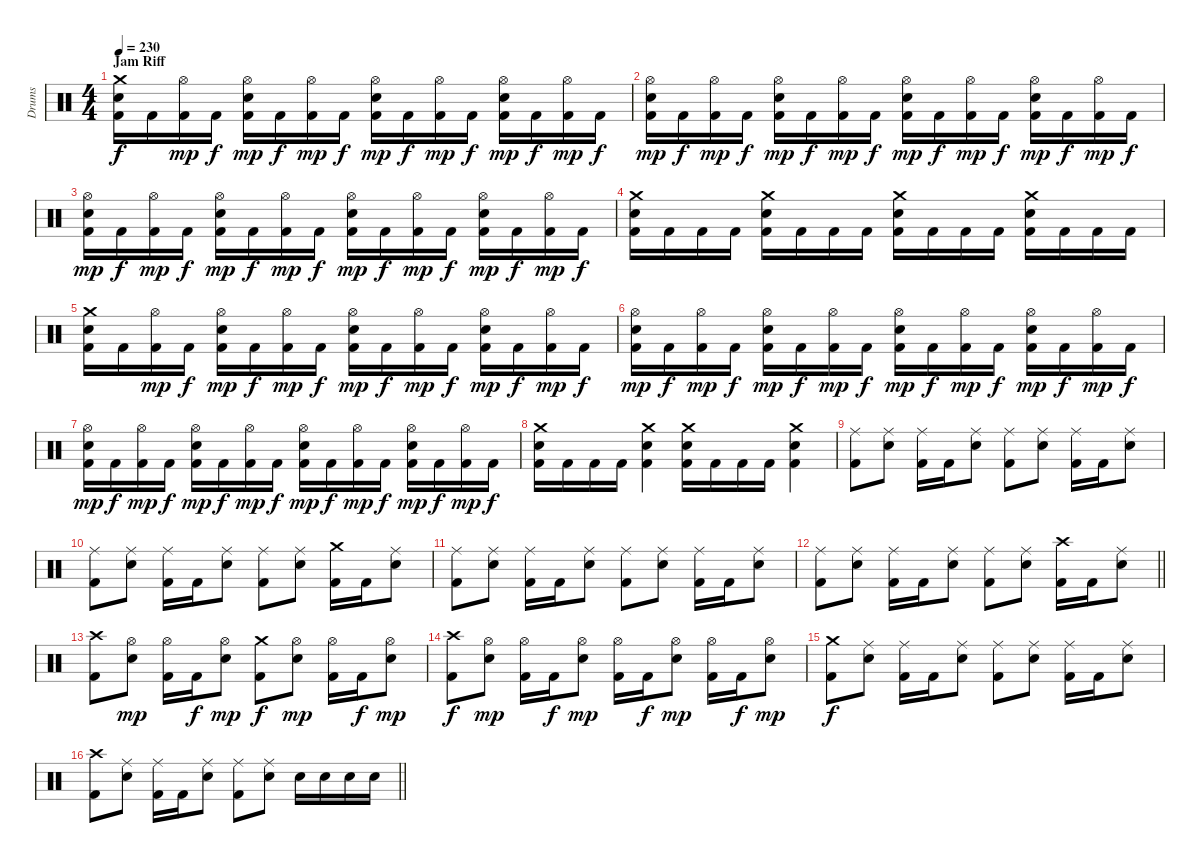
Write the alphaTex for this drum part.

\track ("Drums" "Drums") {instrument percussion}
\staff {score}
\articulation defaults
\ts (4 4)
\section ("" "Jam Riff")
\tempo 230
\clef neutral
\ks c
("Crash medium (hit)" "Snare (hit) 2" "Kick (hit) 2").16{dy f} "Kick (hit) 2".16 ("Hi-Hat (open)" "Kick (hit) 2").16{dy mp} "Kick (hit) 2".16{dy f} ("Hi-Hat (open)" "Snare (hit) 2" "Kick (hit) 2").16{dy mp} "Kick (hit) 2".16{dy f} ("Hi-Hat (open)" "Kick (hit) 2").16{dy mp} "Kick (hit) 2".16{dy f} ("Hi-Hat (open)" "Snare (hit) 2" "Kick (hit) 2").16{dy mp} "Kick (hit) 2".16{dy f} ("Hi-Hat (open)" "Kick (hit) 2").16{dy mp} "Kick (hit) 2".16{dy f} ("Hi-Hat (open)" "Snare (hit) 2" "Kick (hit) 2").16{dy mp} "Kick (hit) 2".16{dy f} ("Hi-Hat (open)" "Kick (hit) 2").16{dy mp} "Kick (hit) 2".16{dy f} |
("Hi-Hat (open)" "Snare (hit) 2" "Kick (hit) 2").16{dy mp} "Kick (hit) 2".16{dy f} ("Hi-Hat (open)" "Kick (hit) 2").16{dy mp} "Kick (hit) 2".16{dy f} ("Hi-Hat (open)" "Snare (hit) 2" "Kick (hit) 2").16{dy mp} "Kick (hit) 2".16{dy f} ("Hi-Hat (open)" "Kick (hit) 2").16{dy mp} "Kick (hit) 2".16{dy f} ("Hi-Hat (open)" "Snare (hit) 2" "Kick (hit) 2").16{dy mp} "Kick (hit) 2".16{dy f} ("Hi-Hat (open)" "Kick (hit) 2").16{dy mp} "Kick (hit) 2".16{dy f} ("Hi-Hat (open)" "Snare (hit) 2" "Kick (hit) 2").16{dy mp} "Kick (hit) 2".16{dy f} ("Hi-Hat (open)" "Kick (hit) 2").16{dy mp} "Kick (hit) 2".16{dy f} |
("Hi-Hat (open)" "Snare (hit) 2" "Kick (hit) 2").16{dy mp} "Kick (hit) 2".16{dy f} ("Hi-Hat (open)" "Kick (hit) 2").16{dy mp} "Kick (hit) 2".16{dy f} ("Hi-Hat (open)" "Snare (hit) 2" "Kick (hit) 2").16{dy mp} "Kick (hit) 2".16{dy f} ("Hi-Hat (open)" "Kick (hit) 2").16{dy mp} "Kick (hit) 2".16{dy f} ("Hi-Hat (open)" "Snare (hit) 2" "Kick (hit) 2").16{dy mp} "Kick (hit) 2".16{dy f} ("Hi-Hat (open)" "Kick (hit) 2").16{dy mp} "Kick (hit) 2".16{dy f} ("Hi-Hat (open)" "Snare (hit) 2" "Kick (hit) 2").16{dy mp} "Kick (hit) 2".16{dy f} ("Hi-Hat (open)" "Kick (hit) 2").16{dy mp} "Kick (hit) 2".16{dy f} |
("Crash medium (hit)" "Snare (hit) 2" "Kick (hit) 2").16 "Kick (hit) 2".16 "Kick (hit) 2".16 "Kick (hit) 2".16 ("Crash medium (hit)" "Snare (hit) 2" "Kick (hit) 2").16 "Kick (hit) 2".16 "Kick (hit) 2".16 "Kick (hit) 2".16 ("Crash medium (hit)" "Snare (hit) 2" "Kick (hit) 2").16 "Kick (hit) 2".16 "Kick (hit) 2".16 "Kick (hit) 2".16 ("Crash medium (hit)" "Snare (hit) 2" "Kick (hit) 2").16 "Kick (hit) 2".16 "Kick (hit) 2".16 "Kick (hit) 2".16 |
("Crash medium (hit)" "Snare (hit) 2" "Kick (hit) 2").16 "Kick (hit) 2".16 ("Hi-Hat (open)" "Kick (hit) 2").16{dy mp} "Kick (hit) 2".16{dy f} ("Hi-Hat (open)" "Snare (hit) 2" "Kick (hit) 2").16{dy mp} "Kick (hit) 2".16{dy f} ("Hi-Hat (open)" "Kick (hit) 2").16{dy mp} "Kick (hit) 2".16{dy f} ("Hi-Hat (open)" "Snare (hit) 2" "Kick (hit) 2").16{dy mp} "Kick (hit) 2".16{dy f} ("Hi-Hat (open)" "Kick (hit) 2").16{dy mp} "Kick (hit) 2".16{dy f} ("Hi-Hat (open)" "Snare (hit) 2" "Kick (hit) 2").16{dy mp} "Kick (hit) 2".16{dy f} ("Hi-Hat (open)" "Kick (hit) 2").16{dy mp} "Kick (hit) 2".16{dy f} |
("Hi-Hat (open)" "Snare (hit) 2" "Kick (hit) 2").16{dy mp} "Kick (hit) 2".16{dy f} ("Hi-Hat (open)" "Kick (hit) 2").16{dy mp} "Kick (hit) 2".16{dy f} ("Hi-Hat (open)" "Snare (hit) 2" "Kick (hit) 2").16{dy mp} "Kick (hit) 2".16{dy f} ("Hi-Hat (open)" "Kick (hit) 2").16{dy mp} "Kick (hit) 2".16{dy f} ("Hi-Hat (open)" "Snare (hit) 2" "Kick (hit) 2").16{dy mp} "Kick (hit) 2".16{dy f} ("Hi-Hat (open)" "Kick (hit) 2").16{dy mp} "Kick (hit) 2".16{dy f} ("Hi-Hat (open)" "Snare (hit) 2" "Kick (hit) 2").16{dy mp} "Kick (hit) 2".16{dy f} ("Hi-Hat (open)" "Kick (hit) 2").16{dy mp} "Kick (hit) 2".16{dy f} |
("Hi-Hat (open)" "Snare (hit) 2" "Kick (hit) 2").16{dy mp} "Kick (hit) 2".16{dy f} ("Hi-Hat (open)" "Kick (hit) 2").16{dy mp} "Kick (hit) 2".16{dy f} ("Hi-Hat (open)" "Snare (hit) 2" "Kick (hit) 2").16{dy mp} "Kick (hit) 2".16{dy f} ("Hi-Hat (open)" "Kick (hit) 2").16{dy mp} "Kick (hit) 2".16{dy f} ("Hi-Hat (open)" "Snare (hit) 2" "Kick (hit) 2").16{dy mp} "Kick (hit) 2".16{dy f} ("Hi-Hat (open)" "Kick (hit) 2").16{dy mp} "Kick (hit) 2".16{dy f} ("Hi-Hat (open)" "Snare (hit) 2" "Kick (hit) 2").16{dy mp} "Kick (hit) 2".16{dy f} ("Hi-Hat (open)" "Kick (hit) 2").16{dy mp} "Kick (hit) 2".16{dy f} |
("Crash medium (hit)" "Snare (hit) 2" "Kick (hit) 2").16 "Kick (hit) 2".16 "Kick (hit) 2".16 "Kick (hit) 2".16 ("Crash medium (hit)" "Snare (hit) 2" "Kick (hit) 2").4 ("Crash medium (hit)" "Snare (hit) 2" "Kick (hit) 2").16 "Kick (hit) 2".16 "Kick (hit) 2".16 "Kick (hit) 2".16 ("Crash medium (hit)" "Snare (hit) 2" "Kick (hit) 2").4 |
("Ride (middle)" "Kick (hit) 2").8 ("Ride (middle)" "Snare (hit) 2").8 ("Ride (middle)" "Kick (hit) 2").16 "Kick (hit) 2".16 ("Ride (middle)" "Snare (hit) 2").8 ("Ride (middle)" "Kick (hit) 2").8 ("Ride (middle)" "Snare (hit) 2").8 ("Ride (middle)" "Kick (hit) 2").16 "Kick (hit) 2".16 ("Ride (middle)" "Snare (hit) 2").8 |
("Ride (middle)" "Kick (hit) 2").8 ("Ride (middle)" "Snare (hit) 2").8 ("Ride (middle)" "Kick (hit) 2").16 "Kick (hit) 2".16 ("Ride (middle)" "Snare (hit) 2").8 ("Ride (middle)" "Kick (hit) 2").8 ("Ride (middle)" "Snare (hit) 2").8 ("Crash medium (hit)" "Kick (hit) 2").16 "Kick (hit) 2".16 ("Ride (middle)" "Snare (hit) 2").8 |
("Ride (middle)" "Kick (hit) 2").8 ("Ride (middle)" "Snare (hit) 2").8 ("Ride (middle)" "Kick (hit) 2").16 "Kick (hit) 2".16 ("Ride (middle)" "Snare (hit) 2").8 ("Ride (middle)" "Kick (hit) 2").8 ("Ride (middle)" "Snare (hit) 2").8 ("Ride (middle)" "Kick (hit) 2").16 "Kick (hit) 2".16 ("Ride (middle)" "Snare (hit) 2").8 |
\barLineRight lightlight
("Ride (middle)" "Kick (hit) 2").8 ("Ride (middle)" "Snare (hit) 2").8 ("Ride (middle)" "Kick (hit) 2").16 "Kick (hit) 2".16 ("Ride (middle)" "Snare (hit) 2").8 ("Ride (middle)" "Kick (hit) 2").8 ("Ride (middle)" "Snare (hit) 2").8 ("Crash high (hit)" "Kick (hit) 2").16 "Kick (hit) 2".16 ("Ride (middle)" "Snare (hit) 2").8 |
("Crash high (hit)" "Kick (hit) 2").8 ("Hi-Hat (open)" "Snare (hit) 2").8{dy mp} ("Hi-Hat (open)" "Kick (hit) 2").16 "Kick (hit) 2".16{dy f} ("Hi-Hat (open)" "Snare (hit) 2").8{dy mp} ("Crash medium (hit)" "Kick (hit) 2").8{dy f} ("Hi-Hat (open)" "Snare (hit) 2").8{dy mp} ("Hi-Hat (open)" "Kick (hit) 2").16 "Kick (hit) 2".16{dy f} ("Hi-Hat (open)" "Snare (hit) 2").8{dy mp} |
("Crash high (hit)" "Kick (hit) 2").8{dy f} ("Hi-Hat (open)" "Snare (hit) 2").8{dy mp} ("Hi-Hat (open)" "Kick (hit) 2").16 "Kick (hit) 2".16{dy f} ("Hi-Hat (open)" "Snare (hit) 2").8{dy mp} ("Hi-Hat (open)" "Kick (hit) 2").16 "Kick (hit) 2".16{dy f} ("Hi-Hat (open)" "Snare (hit) 2").8{dy mp} ("Hi-Hat (open)" "Kick (hit) 2").16 "Kick (hit) 2".16{dy f} ("Hi-Hat (open)" "Snare (hit) 2").8{dy mp} |
("Crash medium (hit)" "Kick (hit) 2").8{dy f} ("Ride (middle)" "Snare (hit) 2").8 ("Ride (middle)" "Kick (hit) 2").16 "Kick (hit) 2".16 ("Ride (middle)" "Snare (hit) 2").8 ("Ride (middle)" "Kick (hit) 2").8 ("Ride (middle)" "Snare (hit) 2").8 ("Ride (middle)" "Kick (hit) 2").16 "Kick (hit) 2".16 ("Ride (middle)" "Snare (hit) 2").8 |
\barLineRight lightlight
("Crash high (hit)" "Kick (hit) 2").8 ("Ride (middle)" "Snare (hit) 2").8 ("Ride (middle)" "Kick (hit) 2").16 "Kick (hit) 2".16 ("Ride (middle)" "Snare (hit) 2").8 ("Ride (middle)" "Kick (hit) 2").8 ("Ride (middle)" "Snare (hit) 2").8 "Snare (hit) 2".16 "Snare (hit) 2".16 "Snare (hit) 2".16 "Snare (hit) 2".16
